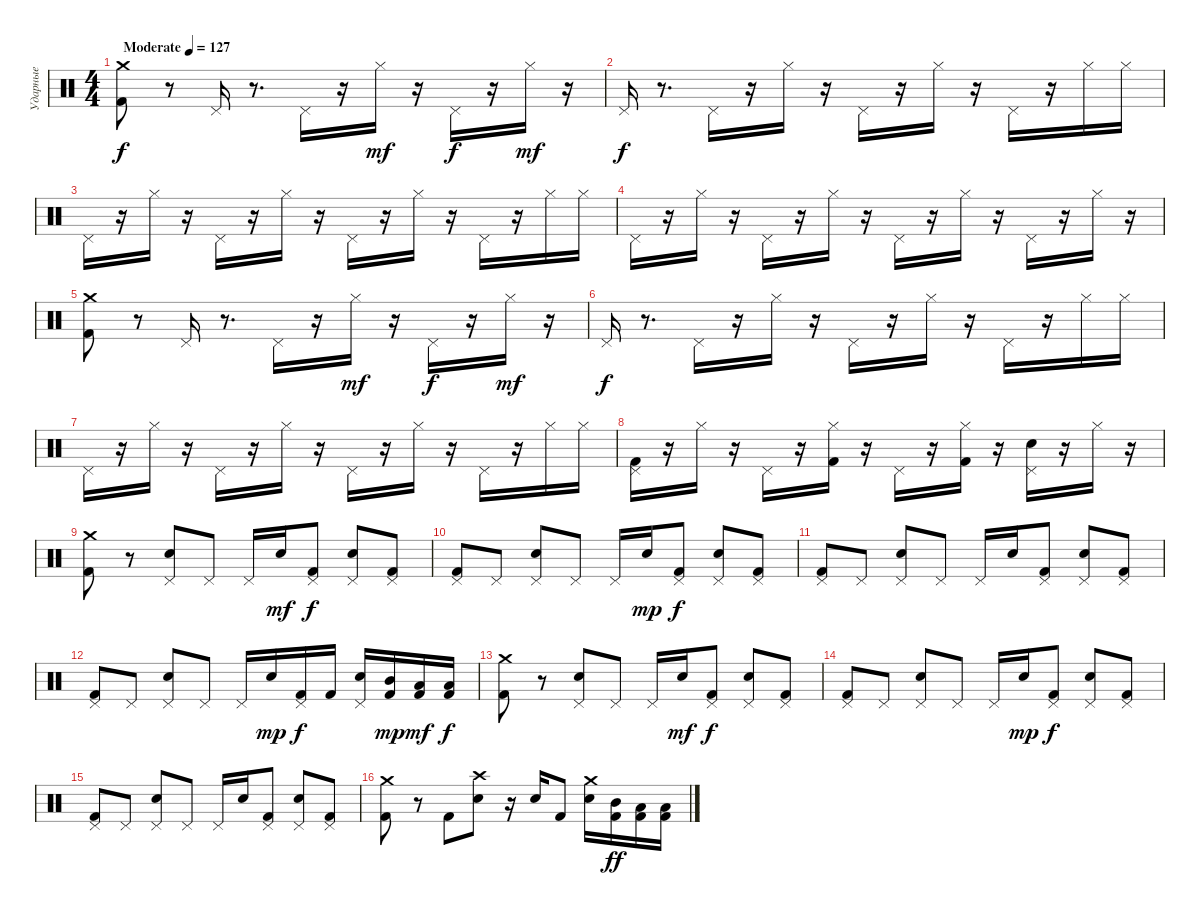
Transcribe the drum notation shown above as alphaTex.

\track ("Ударные" "Ударные") {instrument percussion}
\staff {score}
\articulation defaults
\ts (4 4)
\tempo (127 "Moderate")
\clef neutral
\ks c
("Crash medium (hit)" "Kick (hit) 2").8{dy f} r.8 "Pedal Hi-Hat (hit)".16 r.8{d} "Pedal Hi-Hat (hit)".16 r.16 "Hi-Hat (closed)".16{dy mf} r.16 "Pedal Hi-Hat (hit)".16{dy f} r.16 "Hi-Hat (closed)".16{dy mf} r.16 |
"Pedal Hi-Hat (hit)".16{dy f} r.8{d} "Pedal Hi-Hat (hit)".16 r.16 "Hi-Hat (closed)".16 r.16 "Pedal Hi-Hat (hit)".16 r.16 "Hi-Hat (closed)".16 r.16 "Pedal Hi-Hat (hit)".16 r.16 "Hi-Hat (closed)".16 "Hi-Hat (closed)".16 |
"Pedal Hi-Hat (hit)".16 r.16 "Hi-Hat (closed)".16 r.16 "Pedal Hi-Hat (hit)".16 r.16 "Hi-Hat (closed)".16 r.16 "Pedal Hi-Hat (hit)".16 r.16 "Hi-Hat (closed)".16 r.16 "Pedal Hi-Hat (hit)".16 r.16 "Hi-Hat (closed)".16 "Hi-Hat (closed)".16 |
"Pedal Hi-Hat (hit)".16 r.16 "Hi-Hat (closed)".16 r.16 "Pedal Hi-Hat (hit)".16 r.16 "Hi-Hat (closed)".16 r.16 "Pedal Hi-Hat (hit)".16 r.16 "Hi-Hat (closed)".16 r.16 "Pedal Hi-Hat (hit)".16 r.16 "Hi-Hat (closed)".16 r.16 |
("Crash medium (hit)" "Kick (hit) 2").8 r.8 "Pedal Hi-Hat (hit)".16 r.8{d} "Pedal Hi-Hat (hit)".16 r.16 "Hi-Hat (closed)".16{dy mf} r.16 "Pedal Hi-Hat (hit)".16{dy f} r.16 "Hi-Hat (closed)".16{dy mf} r.16 |
"Pedal Hi-Hat (hit)".16{dy f} r.8{d} "Pedal Hi-Hat (hit)".16 r.16 "Hi-Hat (closed)".16 r.16 "Pedal Hi-Hat (hit)".16 r.16 "Hi-Hat (closed)".16 r.16 "Pedal Hi-Hat (hit)".16 r.16 "Hi-Hat (closed)".16 "Hi-Hat (closed)".16 |
"Pedal Hi-Hat (hit)".16 r.16 "Hi-Hat (closed)".16 r.16 "Pedal Hi-Hat (hit)".16 r.16 "Hi-Hat (closed)".16 r.16 "Pedal Hi-Hat (hit)".16 r.16 "Hi-Hat (closed)".16 r.16 "Pedal Hi-Hat (hit)".16 r.16 "Hi-Hat (closed)".16 "Hi-Hat (closed)".16 |
("Kick (hit) 2" "Pedal Hi-Hat (hit)").16 r.16 "Hi-Hat (closed)".16 r.16 "Pedal Hi-Hat (hit)".16 r.16 ("Hi-Hat (closed)" "Kick (hit) 2").16 r.16 "Pedal Hi-Hat (hit)".16 r.16 ("Kick (hit) 2" "Hi-Hat (closed)").16 r.16 ("Pedal Hi-Hat (hit)" "Snare (hit) 2").16 r.16 "Hi-Hat (closed)".16 r.16 |
("Kick (hit) 2" "Crash medium (hit)").8 r.8 ("Pedal Hi-Hat (hit)" "Snare (hit) 2").8 "Pedal Hi-Hat (hit)".8 "Pedal Hi-Hat (hit)".16 "Electric Snare (hit)".16{dy mf} ("Pedal Hi-Hat (hit)" "Kick (hit) 2").8{dy f} ("Pedal Hi-Hat (hit)" "Snare (hit) 2").8 ("Pedal Hi-Hat (hit)" "Kick (hit) 2").8 |
("Pedal Hi-Hat (hit)" "Kick (hit) 2").8 "Pedal Hi-Hat (hit)".8 ("Pedal Hi-Hat (hit)" "Snare (hit) 2").8 "Pedal Hi-Hat (hit)".8 "Pedal Hi-Hat (hit)".16 "Electric Snare (hit)".16{dy mp} ("Kick (hit) 2" "Pedal Hi-Hat (hit)").8{dy f} ("Snare (hit) 2" "Pedal Hi-Hat (hit)").8 ("Pedal Hi-Hat (hit)" "Kick (hit) 2").8 |
("Kick (hit) 2" "Pedal Hi-Hat (hit)").8 "Pedal Hi-Hat (hit)".8 ("Snare (hit) 2" "Pedal Hi-Hat (hit)").8 "Pedal Hi-Hat (hit)".8 "Pedal Hi-Hat (hit)".16 "Snare (hit) 2".16 ("Pedal Hi-Hat (hit)" "Kick (hit) 2").8 ("Pedal Hi-Hat (hit)" "Snare (hit) 2").8 ("Pedal Hi-Hat (hit)" "Kick (hit) 2").8 |
("Pedal Hi-Hat (hit)" "Kick (hit) 2").8 "Pedal Hi-Hat (hit)".8 ("Snare (hit) 2" "Pedal Hi-Hat (hit)").8 "Pedal Hi-Hat (hit)".8 "Pedal Hi-Hat (hit)".16 "Electric Snare (hit)".16{dy mp} ("Pedal Hi-Hat (hit)" "Kick (hit) 2").16{dy f} "Kick (hit) 2".16 ("Snare (hit) 2" "Pedal Hi-Hat (hit)").16 ("Mid Tom (hit)" "Kick (hit) 2").16{dy mp} ("Low Tom (hit)" "Kick (hit) 2").16{dy mf} ("Kick (hit) 2" "Low Floor Tom (hit)").16{dy f} |
("Kick (hit) 2" "Crash medium (hit)").8 r.8 ("Pedal Hi-Hat (hit)" "Snare (hit) 2").8 "Pedal Hi-Hat (hit)".8 "Pedal Hi-Hat (hit)".16 "Electric Snare (hit)".16{dy mf} ("Kick (hit) 2" "Pedal Hi-Hat (hit)").8{dy f} ("Snare (hit) 2" "Pedal Hi-Hat (hit)").8 ("Kick (hit) 2" "Pedal Hi-Hat (hit)").8 |
("Kick (hit) 2" "Pedal Hi-Hat (hit)").8 "Pedal Hi-Hat (hit)".8 ("Snare (hit) 2" "Pedal Hi-Hat (hit)").8 "Pedal Hi-Hat (hit)".8 "Pedal Hi-Hat (hit)".16 "Electric Snare (hit)".16{dy mp} ("Kick (hit) 2" "Pedal Hi-Hat (hit)").8{dy f} ("Snare (hit) 2" "Pedal Hi-Hat (hit)").8 ("Pedal Hi-Hat (hit)" "Kick (hit) 2").8 |
("Kick (hit) 2" "Pedal Hi-Hat (hit)").8 "Pedal Hi-Hat (hit)".8 ("Pedal Hi-Hat (hit)" "Snare (hit) 2").8 "Pedal Hi-Hat (hit)".8 "Pedal Hi-Hat (hit)".16 "Snare (hit) 2".16 ("Kick (hit) 2" "Pedal Hi-Hat (hit)").8 ("Snare (hit) 2" "Pedal Hi-Hat (hit)").8 ("Pedal Hi-Hat (hit)" "Kick (hit) 2").8 |
("Crash medium (hit)" "Kick (hit) 2").8 r.8 "Kick (hit) 2".8 ("Crash high (hit)" "Snare (hit) 2").8 r.16 "Electric Snare (hit)".16 "Kick (hit) 2".8 ("Snare (hit) 2" "Crash medium (hit)").16 ("Mid Tom (hit)" "Kick (hit) 2").16{dy ff} ("Kick (hit) 2" "Low Tom (hit)").16 ("Kick (hit) 2" "Low Floor Tom (hit)").16
